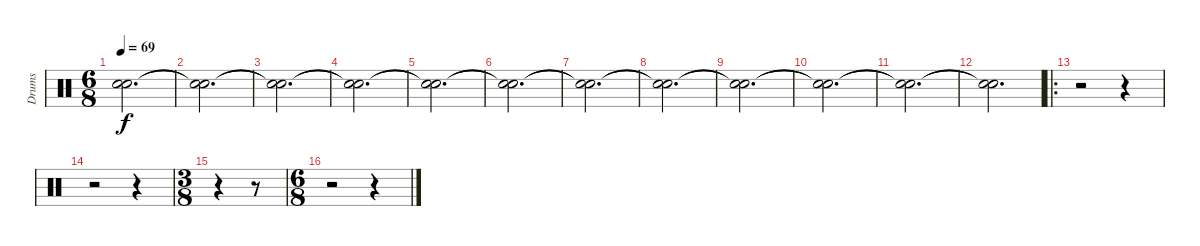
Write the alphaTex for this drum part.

\track ("Drums" "Drums") {instrument percussion}
\staff {score}
\articulation defaults
\ts (6 8)
\tempo 69
\clef neutral
\ks c
("Snare (hit)"{t} "Snare (hit)"{t}).2{d dy f} |
("Snare (hit)"{t} "Snare (hit)"{t}).2{d} |
("Snare (hit)"{t} "Snare (hit)"{t}).2{d} |
("Snare (hit)"{t} "Snare (hit)"{t}).2{d} |
("Snare (hit)"{t} "Snare (hit)"{t}).2{d} |
("Snare (hit)"{t} "Snare (hit)"{t}).2{d} |
("Snare (hit)"{t} "Snare (hit)"{t}).2{d} |
("Snare (hit)"{t} "Snare (hit)"{t}).2{d} |
("Snare (hit)"{t} "Snare (hit)"{t}).2{d} |
("Snare (hit)"{t} "Snare (hit)"{t}).2{d} |
("Snare (hit)"{t} "Snare (hit)"{t}).2{d} |
("Snare (hit)"{t} "Snare (hit)"{t}).2{d} |
\ro
r.2 r.4 |
r.2 r.4 |
\ts (3 8)
r.4 r.8 |
\ts (6 8)
r.2 r.4
